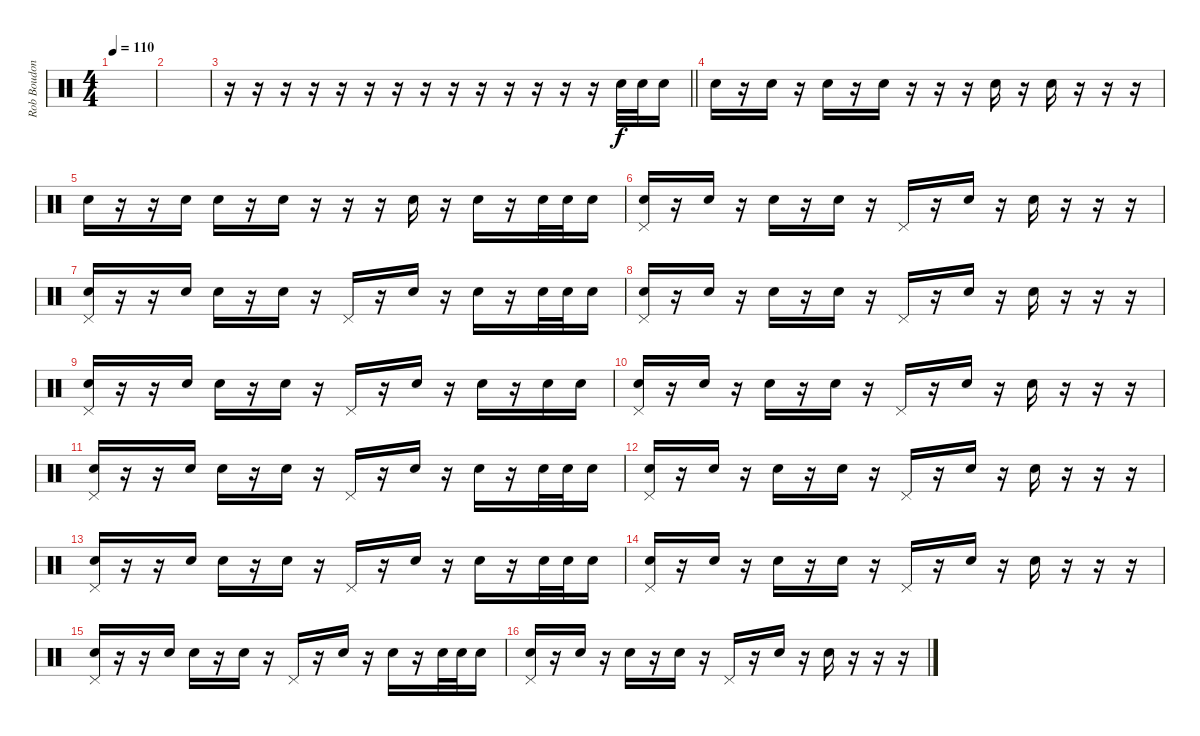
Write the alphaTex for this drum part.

\track ("Rob Boudon [Drums]" "Rob Boudon") {instrument percussion}
\staff {score}
\articulation defaults
\ts (4 4)
\tempo 110
\clef neutral
\ks c
|
|
\barLineRight lightlight
r.16 r.16 r.16 r.16 r.16 r.16 r.16 r.16 r.16 r.16 r.16 r.16 r.16 r.16 "Electric Snare (hit)".32 "Electric Snare (hit)".32 "Electric Snare (hit)".16 |
"Electric Snare (hit)".16 r.16 "Electric Snare (hit)".16 r.16 "Electric Snare (hit)".16 r.16 "Electric Snare (hit)".16 r.16 r.16 r.16 "Electric Snare (hit)".16 r.16 "Electric Snare (hit)".16 r.16 r.16 r.16 |
"Electric Snare (hit)".16 r.16 r.16 "Electric Snare (hit)".16 "Electric Snare (hit)".16 r.16 "Electric Snare (hit)".16 r.16 r.16 r.16 "Electric Snare (hit)".16 r.16 "Electric Snare (hit)".16 r.16 "Electric Snare (hit)".32 "Electric Snare (hit)".32 "Electric Snare (hit)".16 |
("Pedal Hi-Hat (hit)" "Electric Snare (hit)").16 r.16 "Electric Snare (hit)".16 r.16 "Electric Snare (hit)".16 r.16 "Electric Snare (hit)".16 r.16 "Pedal Hi-Hat (hit)".16 r.16 "Electric Snare (hit)".16 r.16 "Electric Snare (hit)".16 r.16 r.16 r.16 |
("Pedal Hi-Hat (hit)" "Electric Snare (hit)").16 r.16 r.16 "Electric Snare (hit)".16 "Electric Snare (hit)".16 r.16 "Electric Snare (hit)".16 r.16 "Pedal Hi-Hat (hit)".16 r.16 "Electric Snare (hit)".16 r.16 "Electric Snare (hit)".16 r.16 "Electric Snare (hit)".32 "Electric Snare (hit)".32 "Electric Snare (hit)".16 |
("Pedal Hi-Hat (hit)" "Electric Snare (hit)").16 r.16 "Electric Snare (hit)".16 r.16 "Electric Snare (hit)".16 r.16 "Electric Snare (hit)".16 r.16 "Pedal Hi-Hat (hit)".16 r.16 "Electric Snare (hit)".16 r.16 "Electric Snare (hit)".16 r.16 r.16 r.16 |
("Pedal Hi-Hat (hit)" "Electric Snare (hit)").16 r.16 r.16 "Electric Snare (hit)".16 "Electric Snare (hit)".16 r.16 "Electric Snare (hit)".16 r.16 "Pedal Hi-Hat (hit)".16 r.16 "Electric Snare (hit)".16 r.16 "Electric Snare (hit)".16 r.16 "Electric Snare (hit)".16 "Electric Snare (hit)".16 |
("Pedal Hi-Hat (hit)" "Electric Snare (hit)").16 r.16 "Electric Snare (hit)".16 r.16 "Electric Snare (hit)".16 r.16 "Electric Snare (hit)".16 r.16 "Pedal Hi-Hat (hit)".16 r.16 "Electric Snare (hit)".16 r.16 "Electric Snare (hit)".16 r.16 r.16 r.16 |
("Pedal Hi-Hat (hit)" "Electric Snare (hit)").16 r.16 r.16 "Electric Snare (hit)".16 "Electric Snare (hit)".16 r.16 "Electric Snare (hit)".16 r.16 "Pedal Hi-Hat (hit)".16 r.16 "Electric Snare (hit)".16 r.16 "Electric Snare (hit)".16 r.16 "Electric Snare (hit)".32 "Electric Snare (hit)".32 "Electric Snare (hit)".16 |
("Pedal Hi-Hat (hit)" "Electric Snare (hit)").16 r.16 "Electric Snare (hit)".16 r.16 "Electric Snare (hit)".16 r.16 "Electric Snare (hit)".16 r.16 "Pedal Hi-Hat (hit)".16 r.16 "Electric Snare (hit)".16 r.16 "Electric Snare (hit)".16 r.16 r.16 r.16 |
("Pedal Hi-Hat (hit)" "Electric Snare (hit)").16 r.16 r.16 "Electric Snare (hit)".16 "Electric Snare (hit)".16 r.16 "Electric Snare (hit)".16 r.16 "Pedal Hi-Hat (hit)".16 r.16 "Electric Snare (hit)".16 r.16 "Electric Snare (hit)".16 r.16 "Electric Snare (hit)".32 "Electric Snare (hit)".32 "Electric Snare (hit)".16 |
("Pedal Hi-Hat (hit)" "Electric Snare (hit)").16 r.16 "Electric Snare (hit)".16 r.16 "Electric Snare (hit)".16 r.16 "Electric Snare (hit)".16 r.16 "Pedal Hi-Hat (hit)".16 r.16 "Electric Snare (hit)".16 r.16 "Electric Snare (hit)".16 r.16 r.16 r.16 |
("Pedal Hi-Hat (hit)" "Electric Snare (hit)").16 r.16 r.16 "Electric Snare (hit)".16 "Electric Snare (hit)".16 r.16 "Electric Snare (hit)".16 r.16 "Pedal Hi-Hat (hit)".16 r.16 "Electric Snare (hit)".16 r.16 "Electric Snare (hit)".16 r.16 "Electric Snare (hit)".32 "Electric Snare (hit)".32 "Electric Snare (hit)".16 |
("Pedal Hi-Hat (hit)" "Electric Snare (hit)").16 r.16 "Electric Snare (hit)".16 r.16 "Electric Snare (hit)".16 r.16 "Electric Snare (hit)".16 r.16 "Pedal Hi-Hat (hit)".16 r.16 "Electric Snare (hit)".16 r.16 "Electric Snare (hit)".16 r.16 r.16 r.16
